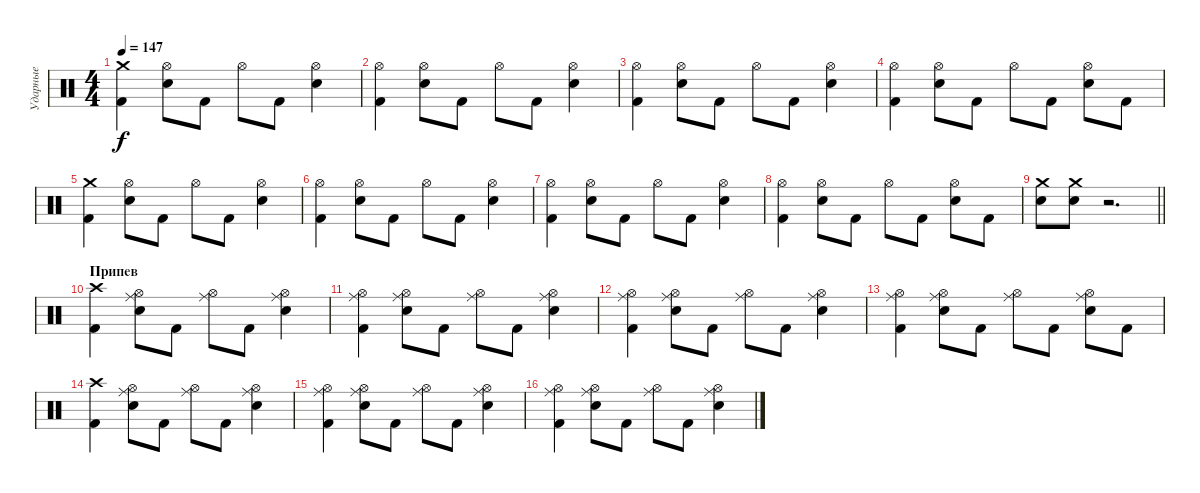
\track ("Ударные" "Ударные") {instrument percussion}
\staff {score}
\articulation defaults
\ts (4 4)
\tempo 147
\clef neutral
\ks c
("Crash medium (hit)" "Kick (hit) 2").4{dy f} ("Hi-Hat (open)" "Snare (hit) 2").8 "Kick (hit) 2".8 "Hi-Hat (open)".8 "Kick (hit) 2".8 ("Hi-Hat (open)" "Snare (hit) 2").4 |
("Hi-Hat (open)" "Kick (hit) 2").4 ("Hi-Hat (open)" "Snare (hit) 2").8 "Kick (hit) 2".8 "Hi-Hat (open)".8 "Kick (hit) 2".8 ("Hi-Hat (open)" "Snare (hit) 2").4 |
("Hi-Hat (open)" "Kick (hit) 2").4 ("Hi-Hat (open)" "Snare (hit) 2").8 "Kick (hit) 2".8 "Hi-Hat (open)".8 "Kick (hit) 2".8 ("Hi-Hat (open)" "Snare (hit) 2").4 |
("Hi-Hat (open)" "Kick (hit) 2").4 ("Hi-Hat (open)" "Snare (hit) 2").8 "Kick (hit) 2".8 "Hi-Hat (open)".8 "Kick (hit) 2".8 ("Hi-Hat (open)" "Snare (hit) 2").8 "Kick (hit) 2".8 |
("Crash medium (hit)" "Kick (hit) 2").4 ("Hi-Hat (open)" "Snare (hit) 2").8 "Kick (hit) 2".8 "Hi-Hat (open)".8 "Kick (hit) 2".8 ("Hi-Hat (open)" "Snare (hit) 2").4 |
("Hi-Hat (open)" "Kick (hit) 2").4 ("Hi-Hat (open)" "Snare (hit) 2").8 "Kick (hit) 2".8 "Hi-Hat (open)".8 "Kick (hit) 2".8 ("Hi-Hat (open)" "Snare (hit) 2").4 |
("Hi-Hat (open)" "Kick (hit) 2").4 ("Hi-Hat (open)" "Snare (hit) 2").8 "Kick (hit) 2".8 "Hi-Hat (open)".8 "Kick (hit) 2".8 ("Hi-Hat (open)" "Snare (hit) 2").4 |
("Hi-Hat (open)" "Kick (hit) 2").4 ("Hi-Hat (open)" "Snare (hit) 2").8 "Kick (hit) 2".8 "Hi-Hat (open)".8 "Kick (hit) 2".8 ("Hi-Hat (open)" "Snare (hit) 2").8 "Kick (hit) 2".8 |
\barLineRight lightlight
("Crash medium (hit)" "Snare (hit) 2").8 ("Crash medium (hit)" "Snare (hit) 2").8 r.2{d} |
\section ("" "Припев")
("Crash high (hit)" "Kick (hit) 2").4 ("Ride (middle)" "Hi-Hat (open)" "Snare (hit) 2").8 "Kick (hit) 2".8 ("Ride (middle)" "Hi-Hat (open)").8 "Kick (hit) 2".8 ("Ride (middle)" "Hi-Hat (open)" "Snare (hit) 2").4 |
("Ride (middle)" "Hi-Hat (open)" "Kick (hit) 2").4 ("Ride (middle)" "Hi-Hat (open)" "Snare (hit) 2").8 "Kick (hit) 2".8 ("Ride (middle)" "Hi-Hat (open)").8 "Kick (hit) 2".8 ("Ride (middle)" "Hi-Hat (open)" "Snare (hit) 2").4 |
("Ride (middle)" "Hi-Hat (open)" "Kick (hit) 2").4 ("Ride (middle)" "Hi-Hat (open)" "Snare (hit) 2").8 "Kick (hit) 2".8 ("Ride (middle)" "Hi-Hat (open)").8 "Kick (hit) 2".8 ("Ride (middle)" "Hi-Hat (open)" "Snare (hit) 2").4 |
("Ride (middle)" "Hi-Hat (open)" "Kick (hit) 2").4 ("Ride (middle)" "Hi-Hat (open)" "Snare (hit) 2").8 "Kick (hit) 2".8 ("Ride (middle)" "Hi-Hat (open)").8 "Kick (hit) 2".8 ("Ride (middle)" "Hi-Hat (open)" "Snare (hit) 2").8 "Kick (hit) 2".8 |
("Crash high (hit)" "Kick (hit) 2").4 ("Ride (middle)" "Hi-Hat (open)" "Snare (hit) 2").8 "Kick (hit) 2".8 ("Ride (middle)" "Hi-Hat (open)").8 "Kick (hit) 2".8 ("Ride (middle)" "Hi-Hat (open)" "Snare (hit) 2").4 |
("Ride (middle)" "Hi-Hat (open)" "Kick (hit) 2").4 ("Ride (middle)" "Hi-Hat (open)" "Snare (hit) 2").8 "Kick (hit) 2".8 ("Ride (middle)" "Hi-Hat (open)").8 "Kick (hit) 2".8 ("Ride (middle)" "Hi-Hat (open)" "Snare (hit) 2").4 |
("Ride (middle)" "Hi-Hat (open)" "Kick (hit) 2").4 ("Ride (middle)" "Hi-Hat (open)" "Snare (hit) 2").8 "Kick (hit) 2".8 ("Ride (middle)" "Hi-Hat (open)").8 "Kick (hit) 2".8 ("Ride (middle)" "Hi-Hat (open)" "Snare (hit) 2").4
